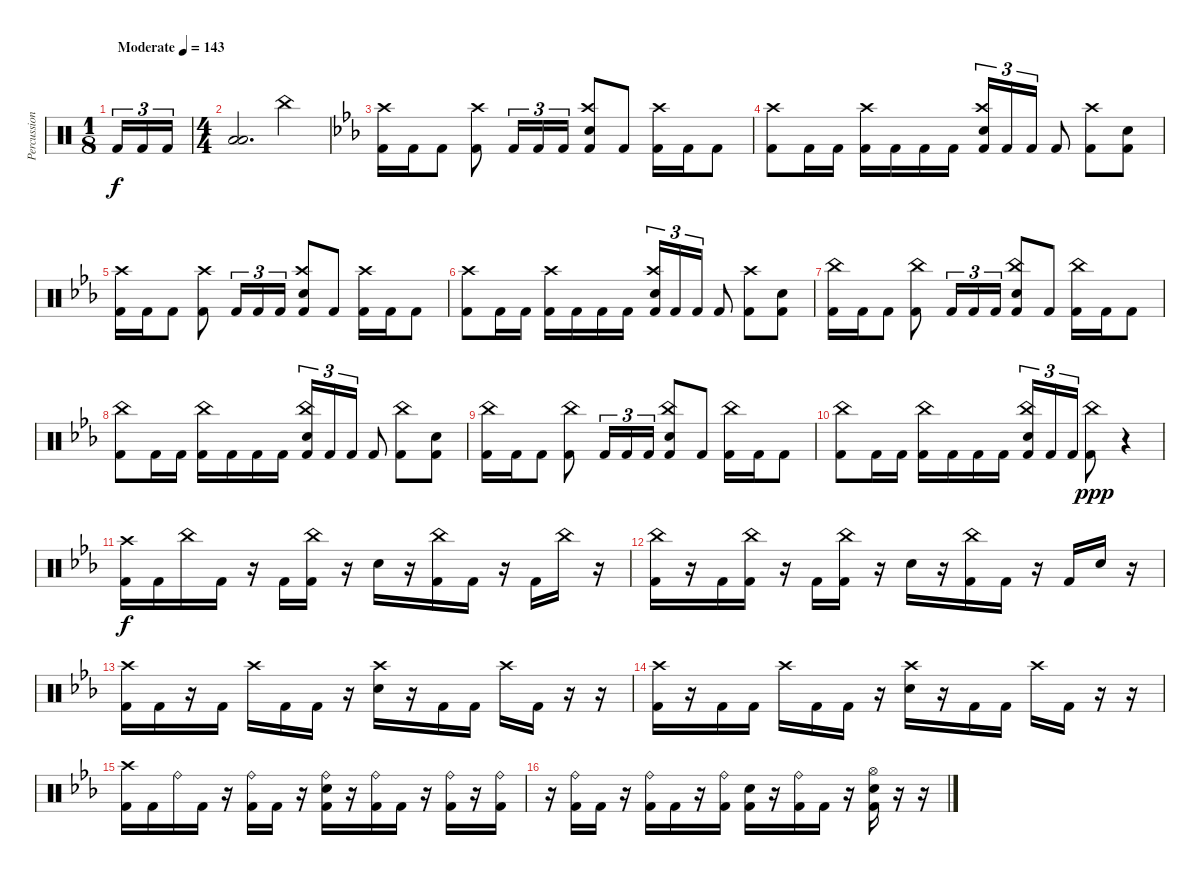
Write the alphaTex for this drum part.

\track ("Percussion" "Percussion") {instrument percussion}
\staff {score}
\articulation defaults
\ts (1 8)
\tempo (143 "Moderate")
\clef neutral
\ks c "Kick (hit) 2".16{tu (3 2) dy f} "Kick (hit) 2".16{tu (3 2)} "Kick (hit) 2".16{tu (3 2)}
|
\ts (4 4)
("Low Tom (hit)" "Low Floor Tom (hit)").2{d} "China (hit)".4 |
\ks cminor
("Crash high (hit)" "Kick (hit) 2").16 "Kick (hit) 2".16 "Kick (hit) 2".8 ("Crash high (hit)" "Kick (hit) 2").8 "Kick (hit) 2".16{tu (3 2)} "Kick (hit) 2".16{tu (3 2)} "Kick (hit) 2".16{tu (3 2)} ("Crash high (hit)" "Electric Snare (hit)" "Kick (hit) 2").8 "Kick (hit) 2".8 ("Crash high (hit)" "Kick (hit) 2").16 "Kick (hit) 2".16 "Kick (hit) 2".8 |
("Crash high (hit)" "Kick (hit) 2").8 "Kick (hit) 2".16 "Kick (hit) 2".16 ("Crash high (hit)" "Kick (hit) 2").16 "Kick (hit) 2".16 "Kick (hit) 2".16 "Kick (hit) 2".16 ("Crash high (hit)" "Electric Snare (hit)" "Kick (hit) 2").16{tu (3 2)} "Kick (hit) 2".16{tu (3 2)} "Kick (hit) 2".16{tu (3 2)} "Kick (hit) 2".8 ("Crash high (hit)" "Kick (hit) 2").8 ("Electric Snare (hit)" "Kick (hit) 2").8 |
("Crash high (hit)" "Kick (hit) 2").16 "Kick (hit) 2".16 "Kick (hit) 2".8 ("Crash high (hit)" "Kick (hit) 2").8 "Kick (hit) 2".16{tu (3 2)} "Kick (hit) 2".16{tu (3 2)} "Kick (hit) 2".16{tu (3 2)} ("Crash high (hit)" "Electric Snare (hit)" "Kick (hit) 2").8 "Kick (hit) 2".8 ("Crash high (hit)" "Kick (hit) 2").16 "Kick (hit) 2".16 "Kick (hit) 2".8 |
("Crash high (hit)" "Kick (hit) 2").8 "Kick (hit) 2".16 "Kick (hit) 2".16 ("Crash high (hit)" "Kick (hit) 2").16 "Kick (hit) 2".16 "Kick (hit) 2".16 "Kick (hit) 2".16 ("Crash high (hit)" "Electric Snare (hit)" "Kick (hit) 2").16{tu (3 2)} "Kick (hit) 2".16{tu (3 2)} "Kick (hit) 2".16{tu (3 2)} "Kick (hit) 2".8 ("Crash high (hit)" "Kick (hit) 2").8 ("Electric Snare (hit)" "Kick (hit) 2").8 |
("China (hit)" "Kick (hit) 2").16 "Kick (hit) 2".16 "Kick (hit) 2".8 ("China (hit)" "Kick (hit) 2").8 "Kick (hit) 2".16{tu (3 2)} "Kick (hit) 2".16{tu (3 2)} "Kick (hit) 2".16{tu (3 2)} ("China (hit)" "Electric Snare (hit)" "Kick (hit) 2").8 "Kick (hit) 2".8 ("China (hit)" "Kick (hit) 2").16 "Kick (hit) 2".16 "Kick (hit) 2".8 |
("China (hit)" "Kick (hit) 2").8 "Kick (hit) 2".16 "Kick (hit) 2".16 ("China (hit)" "Kick (hit) 2").16 "Kick (hit) 2".16 "Kick (hit) 2".16 "Kick (hit) 2".16 ("China (hit)" "Electric Snare (hit)" "Kick (hit) 2").16{tu (3 2)} "Kick (hit) 2".16{tu (3 2)} "Kick (hit) 2".16{tu (3 2)} "Kick (hit) 2".8 ("China (hit)" "Kick (hit) 2").8 ("Electric Snare (hit)" "Kick (hit) 2").8 |
("China (hit)" "Kick (hit) 2").16 "Kick (hit) 2".16 "Kick (hit) 2".8 ("China (hit)" "Kick (hit) 2").8 "Kick (hit) 2".16{tu (3 2)} "Kick (hit) 2".16{tu (3 2)} "Kick (hit) 2".16{tu (3 2)} ("China (hit)" "Electric Snare (hit)" "Kick (hit) 2").8 "Kick (hit) 2".8 ("China (hit)" "Kick (hit) 2").16 "Kick (hit) 2".16 "Kick (hit) 2".8 |
("China (hit)" "Kick (hit) 2").8 "Kick (hit) 2".16 "Kick (hit) 2".16 ("China (hit)" "Kick (hit) 2").16 "Kick (hit) 2".16 "Kick (hit) 2".16 "Kick (hit) 2".16 ("China (hit)" "Electric Snare (hit)" "Kick (hit) 2").16{tu (3 2)} "Kick (hit) 2".16{tu (3 2)} "Kick (hit) 2".16{tu (3 2)} ("China (hit)" "Kick (hit) 2").8{dy ppp} r.4 |
("Crash high (hit)" "Kick (hit) 2").16{dy f} "Kick (hit) 2".16 "China (hit)".16 "Kick (hit) 2".16 r.16 "Kick (hit) 2".16 ("China (hit)" "Kick (hit) 2").16 r.16 "Electric Snare (hit)".16 r.16 ("China (hit)" "Kick (hit) 2").16 "Kick (hit) 2".16 r.16 "Kick (hit) 2".16 "China (hit)".16 r.16 |
("China (hit)" "Kick (hit) 2").16 r.16 "Kick (hit) 2".16 ("China (hit)" "Kick (hit) 2").16 r.16 "Kick (hit) 2".16 ("China (hit)" "Kick (hit) 2").16 r.16 "Electric Snare (hit)".16 r.16 ("China (hit)" "Kick (hit) 2").16 "Kick (hit) 2".16 r.16 "Kick (hit) 2".16 "Electric Snare (hit)".16 r.16 |
("Crash high (hit)" "Kick (hit) 2").16 "Kick (hit) 2".16 r.16 "Kick (hit) 2".16 "Crash high (hit)".16 "Kick (hit) 2".16 "Kick (hit) 2".16 r.16 ("Crash high (hit)" "Electric Snare (hit)").16 r.16 "Kick (hit) 2".16 "Kick (hit) 2".16 "Crash high (hit)".16 "Kick (hit) 2".16 r.16 r.16 |
("Crash high (hit)" "Kick (hit) 2").16 r.16 "Kick (hit) 2".16 "Kick (hit) 2".16 "Crash high (hit)".16 "Kick (hit) 2".16 "Kick (hit) 2".16 r.16 ("Crash high (hit)" "Electric Snare (hit)").16 r.16 "Kick (hit) 2".16 "Kick (hit) 2".16 "Crash high (hit)".16 "Kick (hit) 2".16 r.16 r.16 |
("Crash high (hit)" "Kick (hit) 2").16 "Kick (hit) 2".16 "Ride (bell)".16 "Kick (hit) 2".16 r.16 ("Ride (bell)" "Kick (hit) 2").16 "Kick (hit) 2".16 r.16 ("Ride (bell)" "Electric Snare (hit)" "Kick (hit) 2").16 r.16 ("Ride (bell)" "Kick (hit) 2").16 "Kick (hit) 2".16 r.16 ("Ride (bell)" "Kick (hit) 2").16 r.16 ("Ride (bell)" "Kick (hit) 2").16 |
r.16 ("Ride (bell)" "Kick (hit) 2").16 "Kick (hit) 2".16 r.16 ("Ride (bell)" "Kick (hit) 2").16 "Kick (hit) 2".16 r.16 ("Ride (bell)" "Kick (hit) 2").16 ("Electric Snare (hit)" "Kick (hit) 2").16 r.16 ("Ride (bell)" "Kick (hit) 2").16 "Kick (hit) 2".16 r.16 ("Hi-Hat (open)" "Electric Snare (hit)" "Kick (hit) 2").16 r.16 r.16
